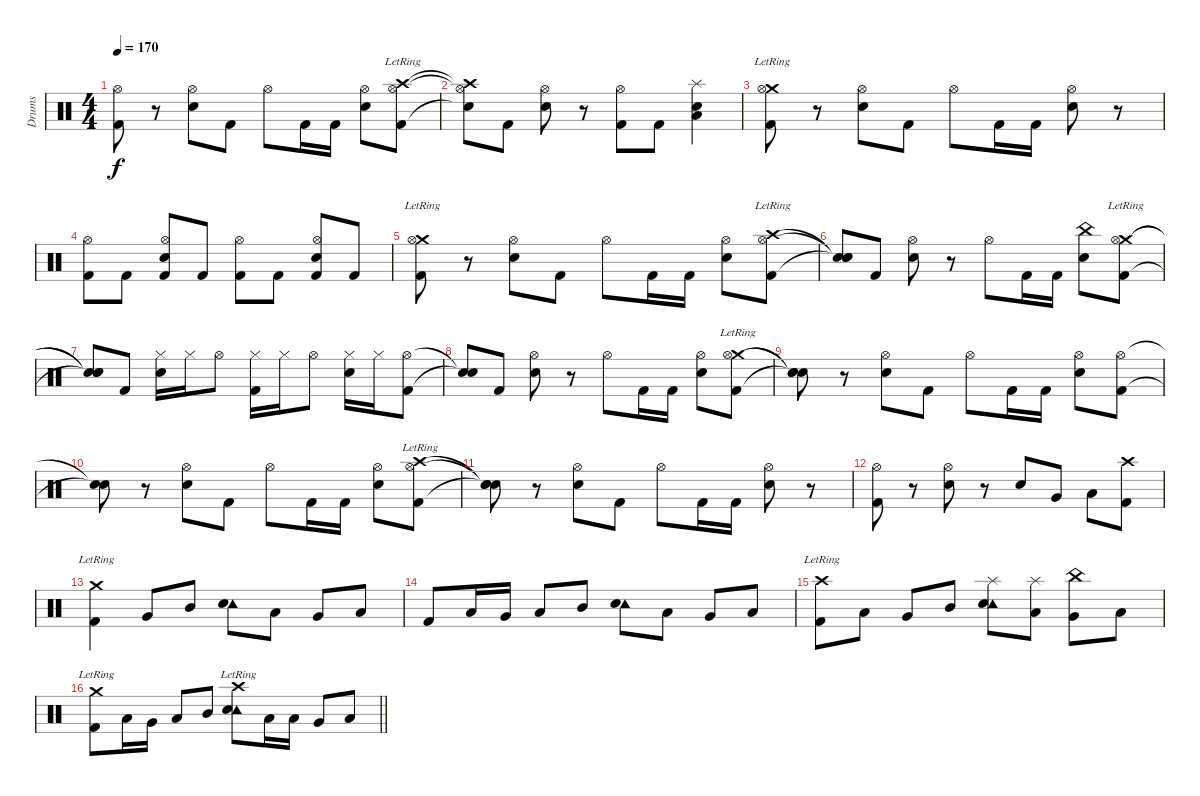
\track ("Drums" "Drums") {instrument percussion}
\staff {score}
\articulation defaults
\ts (4 4)
\tempo 170
\clef neutral
\ks c
("Kick (hit) 2" "Hi-Hat (open)").8{dy f} r.8 ("Electric Snare (hit)" "Hi-Hat (open)").8 "Kick (hit) 2".8 "Hi-Hat (open)".8 "Kick (hit) 2".16 "Kick (hit) 2".16 ("Electric Snare (hit)" "Hi-Hat (open)").8 ("Crash high (hit)"{lr} "Kick (hit) 2" "Hi-Hat (open)").8 |
("Crash high (hit)"{t} "Snare (hit)"{t} "Hi-Hat (open)"{t}).8 "Kick (hit) 2".8 ("Electric Snare (hit)" "Hi-Hat (open)").8 r.8 ("Kick (hit) 2" "Hi-Hat (open)").8 "Kick (hit) 2".8 ("Splash (hit)" "Electric Snare (hit)" "Low Floor Tom (hit)").4 |
("Crash medium (hit)"{lr} "Kick (hit) 2" "Hi-Hat (open)").8 r.8 ("Electric Snare (hit)" "Hi-Hat (open)").8 "Kick (hit) 2".8 "Hi-Hat (open)".8 "Kick (hit) 2".16 "Kick (hit) 2".16 ("Electric Snare (hit)" "Hi-Hat (open)").8 r.8 |
("Kick (hit) 2" "Hi-Hat (open)").8 "Kick (hit) 2".8 ("Electric Snare (hit)" "Kick (hit) 2" "Hi-Hat (open)").8 "Kick (hit) 2".8 ("Kick (hit) 2" "Hi-Hat (open)").8 "Kick (hit) 2".8 ("Electric Snare (hit)" "Kick (hit) 2" "Hi-Hat (open)").8 "Kick (hit) 2".8 |
("Crash medium (hit)"{lr} "Kick (hit) 2" "Hi-Hat (open)").8 r.8 ("Electric Snare (hit)" "Hi-Hat (open)").8 "Kick (hit) 2".8 "Hi-Hat (open)".8 "Kick (hit) 2".16 "Kick (hit) 2".16 ("Electric Snare (hit)" "Hi-Hat (open)").8 ("Crash high (hit)"{lr} "Kick (hit) 2" "Hi-Hat (open)").8 |
("Snare (hit)"{t} "Snare (hit)"{t} "Snare (hit)"{t}).8 "Kick (hit) 2".8 ("Electric Snare (hit)" "Hi-Hat (open)").8 r.8 "Hi-Hat (open)".8 "Kick (hit) 2".16 "Kick (hit) 2".16 ("China (hit)" "Electric Snare (hit)").8 ("Crash medium (hit)"{lr} "Kick (hit) 2" "Hi-Hat (open)").8 |
("Snare (hit)"{t} "Snare (hit)"{t} "Snare (hit)"{t}).8 "Kick (hit) 2".8 ("Electric Snare (hit)" "Hi-Hat (closed)").16 "Hi-Hat (closed)".16 "Hi-Hat (open)".8 ("Kick (hit) 2" "Hi-Hat (closed)").16 "Hi-Hat (closed)".16 "Hi-Hat (open)".8 ("Electric Snare (hit)" "Hi-Hat (closed)").16 "Hi-Hat (closed)".16 ("Kick (hit) 2" "Hi-Hat (open)").8 |
("Snare (hit)"{t} "Snare (hit)"{t}).8 "Kick (hit) 2".8 ("Electric Snare (hit)" "Hi-Hat (open)").8 r.8 "Hi-Hat (open)".8 "Kick (hit) 2".16 "Kick (hit) 2".16 ("Electric Snare (hit)" "Hi-Hat (open)").8 ("Crash medium (hit)"{lr} "Kick (hit) 2" "Hi-Hat (open)").8 |
("Snare (hit)"{t} "Snare (hit)"{t} "Snare (hit)"{t}).8 r.8 ("Electric Snare (hit)" "Hi-Hat (open)").8 "Kick (hit) 2".8 "Hi-Hat (open)".8 "Kick (hit) 2".16 "Kick (hit) 2".16 ("Electric Snare (hit)" "Hi-Hat (open)").8 ("Kick (hit) 2" "Hi-Hat (open)").8 |
("Snare (hit)"{t} "Snare (hit)"{t}).8 r.8 ("Electric Snare (hit)" "Hi-Hat (open)").8 "Kick (hit) 2".8 "Hi-Hat (open)".8 "Kick (hit) 2".16 "Kick (hit) 2".16 ("Electric Snare (hit)" "Hi-Hat (open)").8 ("Crash high (hit)"{lr} "Kick (hit) 2" "Hi-Hat (open)").8 |
("Snare (hit)"{t} "Snare (hit)"{t} "Snare (hit)"{t}).8 r.8 ("Electric Snare (hit)" "Hi-Hat (open)").8 "Kick (hit) 2".8 "Hi-Hat (open)".8 "Kick (hit) 2".16 "Kick (hit) 2".16 ("Electric Snare (hit)" "Hi-Hat (open)").8 r.8 |
("Kick (hit) 2" "Hi-Hat (open)").8 r.8 ("Electric Snare (hit)" "Hi-Hat (open)").8 r.8 "Electric Snare (hit)".8 "Very Low Tom (hit)".8 "Low Floor Tom (hit)".8 ("Crash high (hit)" "Kick (hit) 2").8 |
("Crash medium (hit)"{lr} "Kick (hit) 2").4 "Very Low Tom (hit)".8 "Mid Tom (hit)".8 ("Tambourine (hit)" "Electric Snare (hit)").8 "Low Tom (hit)".8 "Very Low Tom (hit)".8 "Low Floor Tom (hit)".8 |
"Kick (hit) 2".8 "Low Tom (hit)".16 "Very Low Tom (hit)".16 "Low Floor Tom (hit)".8 "Mid Tom (hit)".8 ("Tambourine (hit)" "Electric Snare (hit)").8 "Low Tom (hit)".8 "Very Low Tom (hit)".8 "Low Floor Tom (hit)".8 |
("Crash high (hit)"{lr} "Kick (hit) 2").8 "Low Tom (hit)".8 "Very Low Tom (hit)".8 "Mid Tom (hit)".8 ("Splash (hit)" "Tambourine (hit)" "Electric Snare (hit)").8 ("Splash (hit)" "Low Tom (hit)").8 ("China (hit)" "Very Low Tom (hit)").8 "Low Floor Tom (hit)".8 |
\barLineRight lightlight
("Crash medium (hit)"{lr} "Kick (hit) 2").8 "Low Tom (hit)".16 "Very Low Tom (hit)".16 "Low Floor Tom (hit)".8 "Mid Tom (hit)".8 ("Crash high (hit)"{lr} "Tambourine (hit)" "Electric Snare (hit)").8 "Low Tom (hit)".16 "Low Tom (hit)".16 "Very Low Tom (hit)".8 "Low Floor Tom (hit)".8
